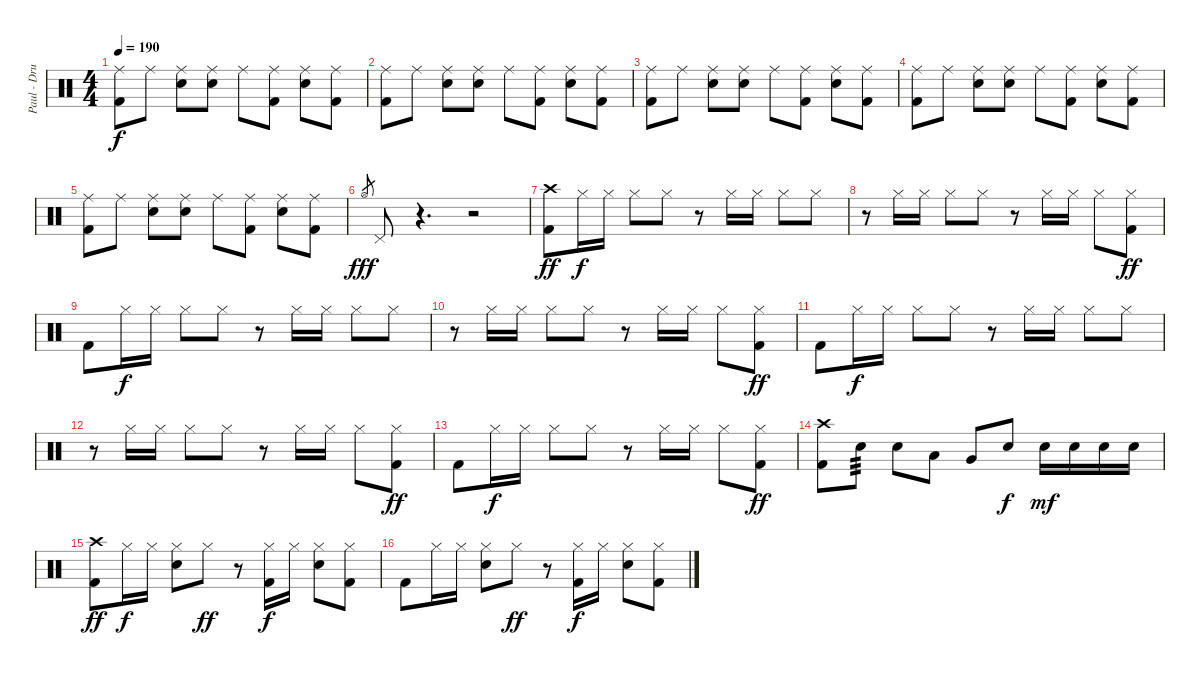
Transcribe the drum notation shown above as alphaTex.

\track ("Paul - Drums" "Paul - Dru") {instrument percussion}
\staff {score}
\articulation defaults
\ts (4 4)
\tempo 190
\clef neutral
\ks c
("Ride (middle)" "Kick (hit) 2").8{dy f} "Ride (middle)".8 ("Ride (middle)" "Electric Snare (hit)").8 ("Ride (middle)" "Electric Snare (hit)").8 "Ride (middle)".8 ("Ride (middle)" "Kick (hit) 2").8 ("Ride (middle)" "Electric Snare (hit)").8 ("Ride (middle)" "Kick (hit) 2").8 |
("Ride (middle)" "Kick (hit) 2").8 "Ride (middle)".8 ("Ride (middle)" "Electric Snare (hit)").8 ("Ride (middle)" "Electric Snare (hit)").8 "Ride (middle)".8 ("Ride (middle)" "Kick (hit) 2").8 ("Ride (middle)" "Electric Snare (hit)").8 ("Ride (middle)" "Kick (hit) 2").8 |
("Ride (middle)" "Kick (hit) 2").8 "Ride (middle)".8 ("Ride (middle)" "Electric Snare (hit)").8 ("Ride (middle)" "Electric Snare (hit)").8 "Ride (middle)".8 ("Ride (middle)" "Kick (hit) 2").8 ("Ride (middle)" "Electric Snare (hit)").8 ("Ride (middle)" "Kick (hit) 2").8 |
("Ride (middle)" "Kick (hit) 2").8 "Ride (middle)".8 ("Ride (middle)" "Electric Snare (hit)").8 ("Ride (middle)" "Electric Snare (hit)").8 "Ride (middle)".8 ("Ride (middle)" "Kick (hit) 2").8 ("Ride (middle)" "Electric Snare (hit)").8 ("Ride (middle)" "Kick (hit) 2").8 |
("Ride (middle)" "Kick (hit) 2").8 "Ride (middle)".8 ("Ride (middle)" "Electric Snare (hit)").8 ("Ride (middle)" "Electric Snare (hit)").8 "Ride (middle)".8 ("Ride (middle)" "Kick (hit) 2").8 ("Ride (middle)" "Electric Snare (hit)").8 ("Ride (middle)" "Kick (hit) 2").8 |
"Hi-Hat (open)".8{gr dy fff} "Pedal Hi-Hat (hit)".8 r.4{d} r.2 |
("Crash high (hit)" "Kick (hit) 2").8{dy ff} "Hi-Hat (closed)".16{dy f} "Hi-Hat (closed)".16 "Hi-Hat (closed)".8 "Hi-Hat (closed)".8 r.8 "Hi-Hat (closed)".16 "Hi-Hat (closed)".16 "Hi-Hat (closed)".8 "Hi-Hat (closed)".8 |
r.8 "Hi-Hat (closed)".16 "Hi-Hat (closed)".16 "Hi-Hat (closed)".8 "Hi-Hat (closed)".8 r.8 "Hi-Hat (closed)".16 "Hi-Hat (closed)".16 "Hi-Hat (closed)".8 ("Hi-Hat (closed)" "Kick (hit) 2").8{dy ff} |
"Kick (hit) 2".8 "Hi-Hat (closed)".16{dy f} "Hi-Hat (closed)".16 "Hi-Hat (closed)".8 "Hi-Hat (closed)".8 r.8 "Hi-Hat (closed)".16 "Hi-Hat (closed)".16 "Hi-Hat (closed)".8 "Hi-Hat (closed)".8 |
r.8 "Hi-Hat (closed)".16 "Hi-Hat (closed)".16 "Hi-Hat (closed)".8 "Hi-Hat (closed)".8 r.8 "Hi-Hat (closed)".16 "Hi-Hat (closed)".16 "Hi-Hat (closed)".8 ("Hi-Hat (closed)" "Kick (hit) 2").8{dy ff} |
"Kick (hit) 2".8 "Hi-Hat (closed)".16{dy f} "Hi-Hat (closed)".16 "Hi-Hat (closed)".8 "Hi-Hat (closed)".8 r.8 "Hi-Hat (closed)".16 "Hi-Hat (closed)".16 "Hi-Hat (closed)".8 "Hi-Hat (closed)".8 |
r.8 "Hi-Hat (closed)".16 "Hi-Hat (closed)".16 "Hi-Hat (closed)".8 "Hi-Hat (closed)".8 r.8 "Hi-Hat (closed)".16 "Hi-Hat (closed)".16 "Hi-Hat (closed)".8 ("Hi-Hat (closed)" "Kick (hit) 2").8{dy ff} |
"Kick (hit) 2".8 "Hi-Hat (closed)".16{dy f} "Hi-Hat (closed)".16 "Hi-Hat (closed)".8 "Hi-Hat (closed)".8 r.8 "Hi-Hat (closed)".16 "Hi-Hat (closed)".16 "Hi-Hat (closed)".8 ("Hi-Hat (closed)" "Kick (hit) 2").8{dy ff} |
("Crash high (hit)" "Kick (hit) 2").8 "Electric Snare (hit)".8{tp 3} "Electric Snare (hit)".8 "Low Tom (hit)".8 "Very Low Tom (hit)".8 "Electric Snare (hit)".8{dy f} "Electric Snare (hit)".16{dy mf} "Electric Snare (hit)".16 "Electric Snare (hit)".16 "Electric Snare (hit)".16 |
("Crash high (hit)" "Kick (hit) 2").8{dy ff} "Hi-Hat (closed)".16{dy f} "Hi-Hat (closed)".16 ("Hi-Hat (closed)" "Electric Snare (hit)").8 "Hi-Hat (closed)".8{dy ff} r.8 ("Hi-Hat (closed)" "Kick (hit) 2").16{dy f} "Hi-Hat (closed)".16 ("Hi-Hat (closed)" "Electric Snare (hit)").8 ("Hi-Hat (closed)" "Kick (hit) 2").8 |
"Kick (hit) 2".8 "Hi-Hat (closed)".16 "Hi-Hat (closed)".16 ("Hi-Hat (closed)" "Electric Snare (hit)").8 "Hi-Hat (closed)".8{dy ff} r.8 ("Hi-Hat (closed)" "Kick (hit) 2").16{dy f} "Hi-Hat (closed)".16 ("Hi-Hat (closed)" "Electric Snare (hit)").8 ("Hi-Hat (closed)" "Kick (hit) 2").8
